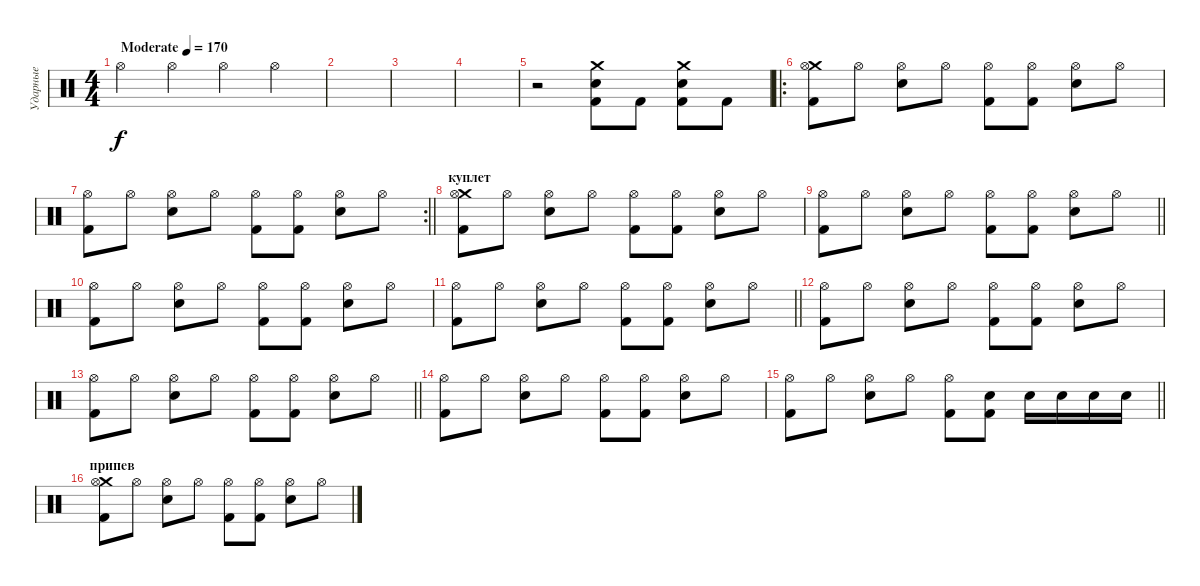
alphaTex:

\track ("Ударные" "Ударные") {instrument percussion}
\staff {score}
\articulation defaults
\ts (4 4)
\tempo (170 "Moderate")
\clef neutral
\ks c "Hi-Hat (open)".4{dy f} "Hi-Hat (open)".4 "Hi-Hat (open)".4 "Hi-Hat (open)".4
|
|
|
|
r.2 ("Kick (hit) 2" "Electric Snare (hit)" "Crash medium (hit)").8 "Kick (hit) 2".8 ("Kick (hit) 2" "Electric Snare (hit)" "Crash medium (hit)").8 "Kick (hit) 2".8 |
\ro
("Crash medium (hit)" "Hi-Hat (open)" "Kick (hit) 2").8 "Hi-Hat (open)".8 ("Hi-Hat (open)" "Electric Snare (hit)").8 "Hi-Hat (open)".8 ("Hi-Hat (open)" "Kick (hit) 2").8 ("Hi-Hat (open)" "Kick (hit) 2").8 ("Hi-Hat (open)" "Electric Snare (hit)").8 "Hi-Hat (open)".8 |
\rc 2
\barLineRight lightlight
("Hi-Hat (open)" "Kick (hit) 2").8 "Hi-Hat (open)".8 ("Hi-Hat (open)" "Electric Snare (hit)").8 "Hi-Hat (open)".8 ("Hi-Hat (open)" "Kick (hit) 2").8 ("Hi-Hat (open)" "Kick (hit) 2").8 ("Hi-Hat (open)" "Electric Snare (hit)").8 "Hi-Hat (open)".8 |
\section ("" "куплет")
("Crash medium (hit)" "Hi-Hat (open)" "Kick (hit) 2").8 "Hi-Hat (open)".8 ("Hi-Hat (open)" "Electric Snare (hit)").8 "Hi-Hat (open)".8 ("Hi-Hat (open)" "Kick (hit) 2").8 ("Hi-Hat (open)" "Kick (hit) 2").8 ("Hi-Hat (open)" "Electric Snare (hit)").8 "Hi-Hat (open)".8 |
\barLineRight lightlight
("Hi-Hat (open)" "Kick (hit) 2").8 "Hi-Hat (open)".8 ("Hi-Hat (open)" "Electric Snare (hit)").8 "Hi-Hat (open)".8 ("Hi-Hat (open)" "Kick (hit) 2").8 ("Hi-Hat (open)" "Kick (hit) 2").8 ("Hi-Hat (open)" "Electric Snare (hit)").8 "Hi-Hat (open)".8 |
("Hi-Hat (open)" "Kick (hit) 2").8 "Hi-Hat (open)".8 ("Hi-Hat (open)" "Electric Snare (hit)").8 "Hi-Hat (open)".8 ("Hi-Hat (open)" "Kick (hit) 2").8 ("Hi-Hat (open)" "Kick (hit) 2").8 ("Hi-Hat (open)" "Electric Snare (hit)").8 "Hi-Hat (open)".8 |
\barLineRight lightlight
("Hi-Hat (open)" "Kick (hit) 2").8 "Hi-Hat (open)".8 ("Hi-Hat (open)" "Electric Snare (hit)").8 "Hi-Hat (open)".8 ("Hi-Hat (open)" "Kick (hit) 2").8 ("Hi-Hat (open)" "Kick (hit) 2").8 ("Hi-Hat (open)" "Electric Snare (hit)").8 "Hi-Hat (open)".8 |
("Hi-Hat (open)" "Kick (hit) 2").8 "Hi-Hat (open)".8 ("Hi-Hat (open)" "Electric Snare (hit)").8 "Hi-Hat (open)".8 ("Hi-Hat (open)" "Kick (hit) 2").8 ("Hi-Hat (open)" "Kick (hit) 2").8 ("Hi-Hat (open)" "Electric Snare (hit)").8 "Hi-Hat (open)".8 |
\barLineRight lightlight
("Hi-Hat (open)" "Kick (hit) 2").8 "Hi-Hat (open)".8 ("Hi-Hat (open)" "Electric Snare (hit)").8 "Hi-Hat (open)".8 ("Hi-Hat (open)" "Kick (hit) 2").8 ("Hi-Hat (open)" "Kick (hit) 2").8 ("Hi-Hat (open)" "Electric Snare (hit)").8 "Hi-Hat (open)".8 |
("Hi-Hat (open)" "Kick (hit) 2").8 "Hi-Hat (open)".8 ("Hi-Hat (open)" "Electric Snare (hit)").8 "Hi-Hat (open)".8 ("Hi-Hat (open)" "Kick (hit) 2").8 ("Hi-Hat (open)" "Kick (hit) 2").8 ("Hi-Hat (open)" "Electric Snare (hit)").8 "Hi-Hat (open)".8 |
\barLineRight lightlight
("Hi-Hat (open)" "Kick (hit) 2").8 "Hi-Hat (open)".8 ("Hi-Hat (open)" "Electric Snare (hit)").8 "Hi-Hat (open)".8 ("Hi-Hat (open)" "Kick (hit) 2").8 ("Electric Snare (hit)" "Kick (hit) 2").8 "Electric Snare (hit)".16 "Electric Snare (hit)".16 "Electric Snare (hit)".16 "Electric Snare (hit)".16 |
\section ("" "припев")
("Crash medium (hit)" "Hi-Hat (open)" "Kick (hit) 2").8 "Hi-Hat (open)".8 ("Hi-Hat (open)" "Electric Snare (hit)").8 "Hi-Hat (open)".8 ("Hi-Hat (open)" "Kick (hit) 2").8 ("Hi-Hat (open)" "Kick (hit) 2").8 ("Hi-Hat (open)" "Electric Snare (hit)").8 "Hi-Hat (open)".8
